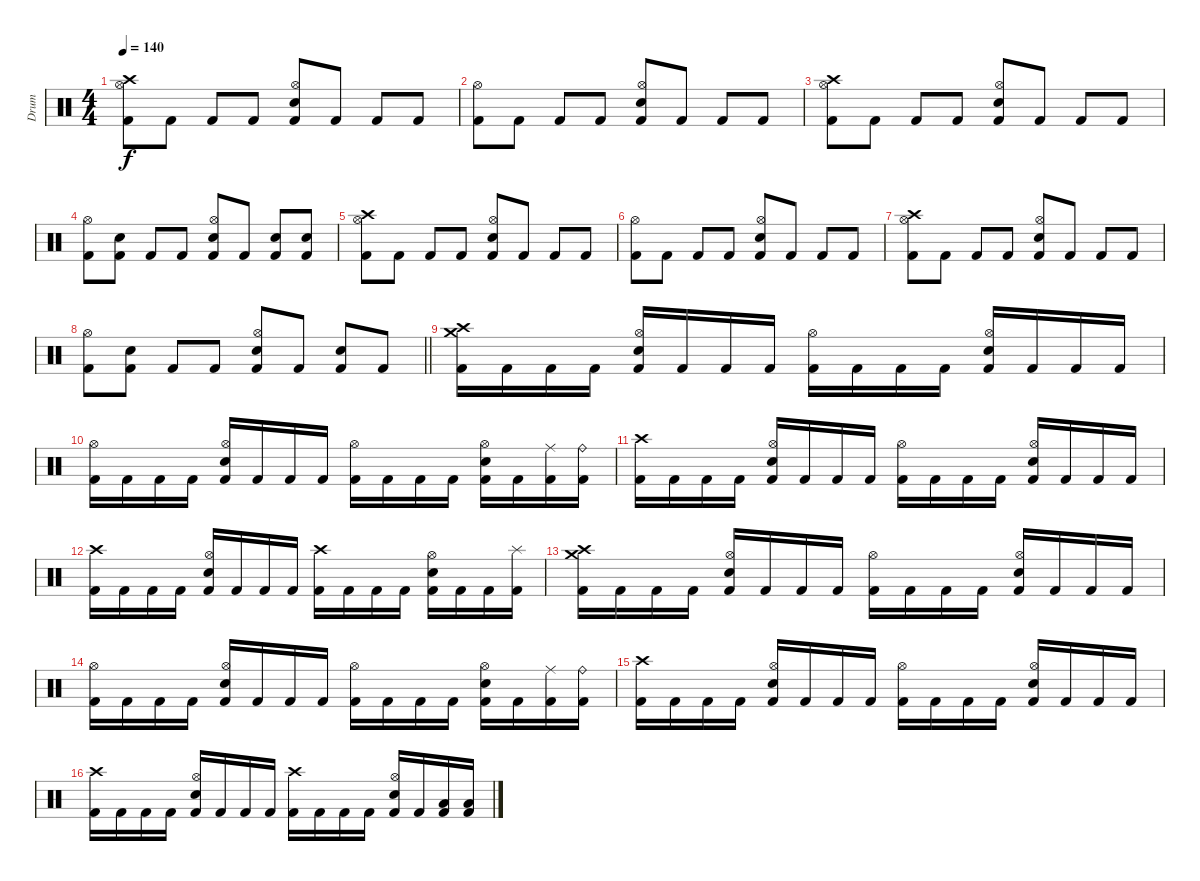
\track ("Drum" "Drum") {instrument percussion}
\staff {score}
\articulation defaults
\ts (4 4)
\tempo 140
\clef neutral
\ks c
("Kick (hit) 2" "Crash high (hit)" "Hi-Hat (open)").8{dy f} "Kick (hit) 2".8 "Kick (hit) 2".8 "Kick (hit) 2".8 ("Kick (hit) 2" "Snare (hit) 2" "Hi-Hat (open)").8 "Kick (hit) 2".8 "Kick (hit) 2".8 "Kick (hit) 2".8 |
("Kick (hit) 2" "Hi-Hat (open)").8 "Kick (hit) 2".8 "Kick (hit) 2".8 "Kick (hit) 2".8 ("Kick (hit) 2" "Snare (hit) 2" "Hi-Hat (open)").8 "Kick (hit) 2".8 "Kick (hit) 2".8 "Kick (hit) 2".8 |
("Kick (hit) 2" "Crash high (hit)" "Hi-Hat (open)").8 "Kick (hit) 2".8 "Kick (hit) 2".8 "Kick (hit) 2".8 ("Kick (hit) 2" "Snare (hit) 2" "Hi-Hat (open)").8 "Kick (hit) 2".8 "Kick (hit) 2".8 "Kick (hit) 2".8 |
("Kick (hit) 2" "Hi-Hat (open)").8 ("Kick (hit) 2" "Snare (hit) 2").8 "Kick (hit) 2".8 "Kick (hit) 2".8 ("Kick (hit) 2" "Snare (hit) 2" "Hi-Hat (open)").8 "Kick (hit) 2".8 ("Kick (hit) 2" "Snare (hit) 2").8 ("Kick (hit) 2" "Snare (hit) 2").8 |
("Kick (hit) 2" "Crash high (hit)" "Hi-Hat (open)").8 "Kick (hit) 2".8 "Kick (hit) 2".8 "Kick (hit) 2".8 ("Kick (hit) 2" "Snare (hit) 2" "Hi-Hat (open)").8 "Kick (hit) 2".8 "Kick (hit) 2".8 "Kick (hit) 2".8 |
("Kick (hit) 2" "Hi-Hat (open)").8 "Kick (hit) 2".8 "Kick (hit) 2".8 "Kick (hit) 2".8 ("Kick (hit) 2" "Snare (hit) 2" "Hi-Hat (open)").8 "Kick (hit) 2".8 "Kick (hit) 2".8 "Kick (hit) 2".8 |
("Kick (hit) 2" "Crash high (hit)" "Hi-Hat (open)").8 "Kick (hit) 2".8 "Kick (hit) 2".8 "Kick (hit) 2".8 ("Kick (hit) 2" "Snare (hit) 2" "Hi-Hat (open)").8 "Kick (hit) 2".8 "Kick (hit) 2".8 "Kick (hit) 2".8 |
\barLineRight lightlight
("Kick (hit) 2" "Hi-Hat (open)").8 ("Kick (hit) 2" "Snare (hit) 2").8 "Kick (hit) 2".8 "Kick (hit) 2".8 ("Kick (hit) 2" "Snare (hit) 2" "Hi-Hat (open)").8 "Kick (hit) 2".8 ("Kick (hit) 2" "Snare (hit) 2").8 "Kick (hit) 2".8 |
\section ("" "")
("Crash high (hit)" "Crash medium (hit)" "Kick (hit) 2").16 "Kick (hit) 2".16 "Kick (hit) 2".16 "Kick (hit) 2".16 ("Hi-Hat (open)" "Snare (hit) 2" "Kick (hit) 2").16 "Kick (hit) 2".16 "Kick (hit) 2".16 "Kick (hit) 2".16 ("Hi-Hat (open)" "Kick (hit) 2").16 "Kick (hit) 2".16 "Kick (hit) 2".16 "Kick (hit) 2".16 ("Hi-Hat (open)" "Snare (hit) 2" "Kick (hit) 2").16 "Kick (hit) 2".16 "Kick (hit) 2".16 "Kick (hit) 2".16 |
("Hi-Hat (open)" "Kick (hit) 2").16 "Kick (hit) 2".16 "Kick (hit) 2".16 "Kick (hit) 2".16 ("Hi-Hat (open)" "Snare (hit) 2" "Kick (hit) 2").16 "Kick (hit) 2".16 "Kick (hit) 2".16 "Kick (hit) 2".16 ("Hi-Hat (open)" "Kick (hit) 2").16 "Kick (hit) 2".16 "Kick (hit) 2".16 "Kick (hit) 2".16 ("Hi-Hat (open)" "Snare (hit) 2" "Kick (hit) 2").16 "Kick (hit) 2".16 ("Ride (middle)" "Kick (hit) 2").16 ("Ride (bell)" "Kick (hit) 2").16 |
("Crash high (hit)" "Kick (hit) 2").16 "Kick (hit) 2".16 "Kick (hit) 2".16 "Kick (hit) 2".16 ("Hi-Hat (open)" "Snare (hit) 2" "Kick (hit) 2").16 "Kick (hit) 2".16 "Kick (hit) 2".16 "Kick (hit) 2".16 ("Hi-Hat (open)" "Kick (hit) 2").16 "Kick (hit) 2".16 "Kick (hit) 2".16 "Kick (hit) 2".16 ("Hi-Hat (open)" "Snare (hit) 2" "Kick (hit) 2").16 "Kick (hit) 2".16 "Kick (hit) 2".16 "Kick (hit) 2".16 |
("Crash high (hit)" "Kick (hit) 2").16 "Kick (hit) 2".16 "Kick (hit) 2".16 "Kick (hit) 2".16 ("Hi-Hat (open)" "Snare (hit) 2" "Kick (hit) 2").16 "Kick (hit) 2".16 "Kick (hit) 2".16 "Kick (hit) 2".16 ("Crash high (hit)" "Kick (hit) 2").16 "Kick (hit) 2".16 "Kick (hit) 2".16 "Kick (hit) 2".16 ("Hi-Hat (open)" "Snare (hit) 2" "Kick (hit) 2").16 "Kick (hit) 2".16 "Kick (hit) 2".16 ("Splash (hit)" "Kick (hit) 2").16 |
("Crash high (hit)" "Crash medium (hit)" "Kick (hit) 2").16 "Kick (hit) 2".16 "Kick (hit) 2".16 "Kick (hit) 2".16 ("Hi-Hat (open)" "Snare (hit) 2" "Kick (hit) 2").16 "Kick (hit) 2".16 "Kick (hit) 2".16 "Kick (hit) 2".16 ("Hi-Hat (open)" "Kick (hit) 2").16 "Kick (hit) 2".16 "Kick (hit) 2".16 "Kick (hit) 2".16 ("Hi-Hat (open)" "Snare (hit) 2" "Kick (hit) 2").16 "Kick (hit) 2".16 "Kick (hit) 2".16 "Kick (hit) 2".16 |
("Hi-Hat (open)" "Kick (hit) 2").16 "Kick (hit) 2".16 "Kick (hit) 2".16 "Kick (hit) 2".16 ("Hi-Hat (open)" "Snare (hit) 2" "Kick (hit) 2").16 "Kick (hit) 2".16 "Kick (hit) 2".16 "Kick (hit) 2".16 ("Hi-Hat (open)" "Kick (hit) 2").16 "Kick (hit) 2".16 "Kick (hit) 2".16 "Kick (hit) 2".16 ("Hi-Hat (open)" "Snare (hit) 2" "Kick (hit) 2").16 "Kick (hit) 2".16 ("Ride (middle)" "Kick (hit) 2").16 ("Ride (bell)" "Kick (hit) 2").16 |
("Crash high (hit)" "Kick (hit) 2").16 "Kick (hit) 2".16 "Kick (hit) 2".16 "Kick (hit) 2".16 ("Hi-Hat (open)" "Snare (hit) 2" "Kick (hit) 2").16 "Kick (hit) 2".16 "Kick (hit) 2".16 "Kick (hit) 2".16 ("Hi-Hat (open)" "Kick (hit) 2").16 "Kick (hit) 2".16 "Kick (hit) 2".16 "Kick (hit) 2".16 ("Hi-Hat (open)" "Snare (hit) 2" "Kick (hit) 2").16 "Kick (hit) 2".16 "Kick (hit) 2".16 "Kick (hit) 2".16 |
("Crash high (hit)" "Kick (hit) 2").16 "Kick (hit) 2".16 "Kick (hit) 2".16 "Kick (hit) 2".16 ("Hi-Hat (open)" "Snare (hit) 2" "Kick (hit) 2").16 "Kick (hit) 2".16 "Kick (hit) 2".16 "Kick (hit) 2".16 ("Crash high (hit)" "Kick (hit) 2").16 "Kick (hit) 2".16 "Kick (hit) 2".16 "Kick (hit) 2".16 ("Hi-Hat (open)" "Snare (hit) 2" "Kick (hit) 2").16 "Kick (hit) 2".16 ("Low Floor Tom (hit)" "Kick (hit) 2").16 ("Low Floor Tom (hit)" "Kick (hit) 2").16
